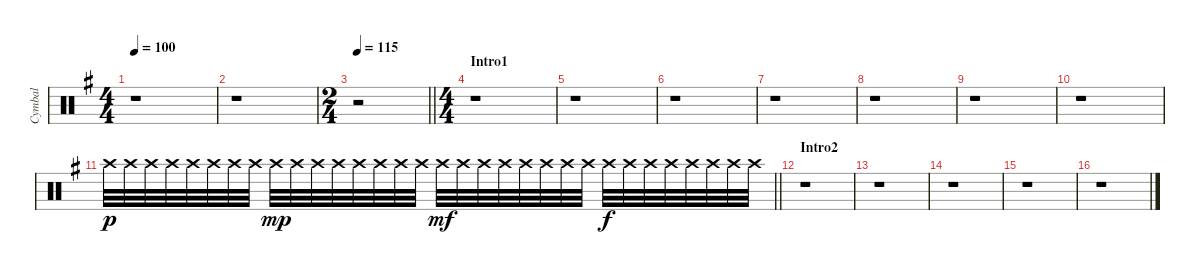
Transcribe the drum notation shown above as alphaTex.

\track ("Cymbal" "Cymbal") {instrument percussion}
\staff {score}
\articulation defaults
\ts (4 4)
\tempo 100
\clef neutral
\ks g
r.1{dy p} |
r.1 |
\ts (2 4)
\tempo 115
\barLineRight lightlight
r.2 |
\ts (4 4)
\section ("" "Intro1")
r.1 |
r.1 |
r.1 |
r.1 |
r.1 |
r.1 |
r.1 |
\barLineRight lightlight "Crash high (hit)".32 "Crash high (hit)".32 "Crash high (hit)".32 "Crash high (hit)".32 "Crash high (hit)".32 "Crash high (hit)".32 "Crash high (hit)".32 "Crash high (hit)".32 "Crash high (hit)".32{dy mp} "Crash high (hit)".32 "Crash high (hit)".32 "Crash high (hit)".32 "Crash high (hit)".32 "Crash high (hit)".32 "Crash high (hit)".32 "Crash high (hit)".32 "Crash high (hit)".32{dy mf} "Crash high (hit)".32 "Crash high (hit)".32 "Crash high (hit)".32 "Crash high (hit)".32 "Crash high (hit)".32 "Crash high (hit)".32 "Crash high (hit)".32 "Crash high (hit)".32{dy f} "Crash high (hit)".32 "Crash high (hit)".32 "Crash high (hit)".32 "Crash high (hit)".32 "Crash high (hit)".32 "Crash high (hit)".32 "Crash high (hit)".32
|
\section ("" "Intro2")
r.1 |
r.1 |
r.1 |
r.1 |
r.1
